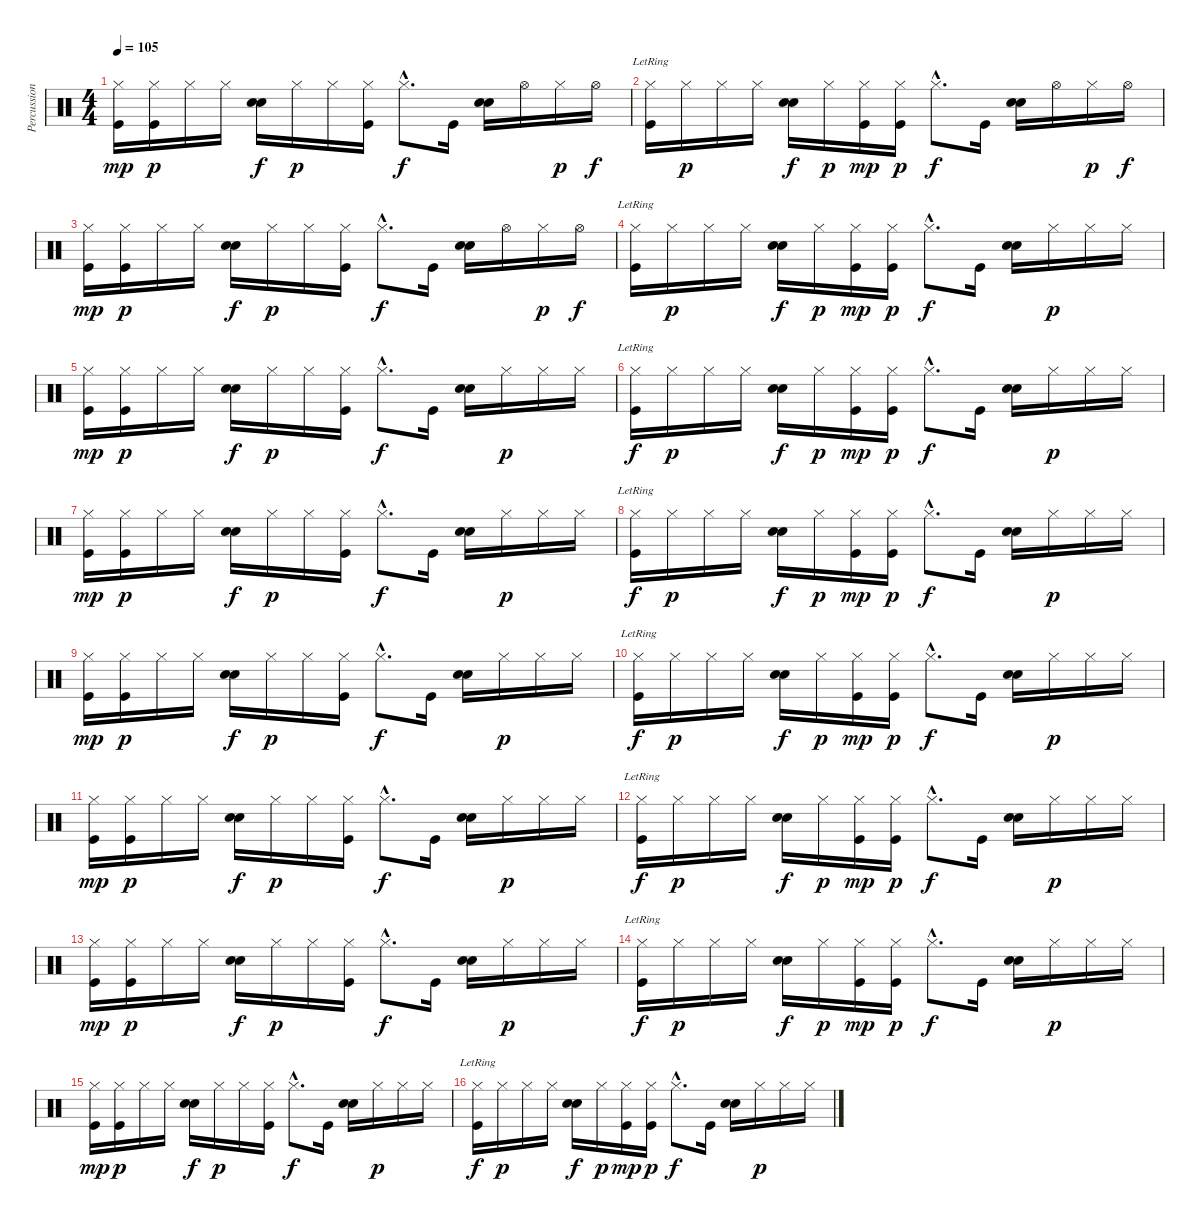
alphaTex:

\track ("Percussions" "Percussion") {instrument percussion}
\staff {score}
\articulation defaults
\ts (4 4)
\tempo 105
\clef neutral
\ks c
("Hi-Hat (closed)" "Kick (hit)").16{dy mp} ("Hi-Hat (closed)" "Kick (hit)").16{dy p} "Hi-Hat (closed)".16 "Hi-Hat (closed)".16 ("Hand Clap (hit)" "Snare (hit) 2").16{dy f} "Hi-Hat (closed)".16{dy p} "Hi-Hat (closed)".16 ("Hi-Hat (closed)" "Kick (hit)").16 "Hi-Hat (closed)"{hac}.8{d dy f} "Kick (hit)".16 ("Hand Clap (hit)" "Snare (hit) 2").16 "Hi-Hat (open)".16 "Hi-Hat (closed)".16{dy p} "Hi-Hat (open)".16{dy f} |
("Hi-Hat (closed)"{lr} "Kick (hit)").16 "Hi-Hat (closed)".16{dy p} "Hi-Hat (closed)".16 "Hi-Hat (closed)".16 ("Hand Clap (hit)" "Snare (hit) 2").16{dy f} "Hi-Hat (closed)".16{dy p} ("Hi-Hat (closed)" "Kick (hit)").16{dy mp} ("Hi-Hat (closed)" "Kick (hit)").16{dy p} "Hi-Hat (closed)"{hac}.8{d dy f} "Kick (hit)".16 ("Hand Clap (hit)" "Snare (hit) 2").16 "Hi-Hat (open)".16 "Hi-Hat (closed)".16{dy p} "Hi-Hat (open)".16{dy f} |
("Hi-Hat (closed)" "Kick (hit)").16{dy mp} ("Hi-Hat (closed)" "Kick (hit)").16{dy p} "Hi-Hat (closed)".16 "Hi-Hat (closed)".16 ("Hand Clap (hit)" "Snare (hit) 2").16{dy f} "Hi-Hat (closed)".16{dy p} "Hi-Hat (closed)".16 ("Hi-Hat (closed)" "Kick (hit)").16 "Hi-Hat (closed)"{hac}.8{d dy f} "Kick (hit)".16 ("Hand Clap (hit)" "Snare (hit) 2").16 "Hi-Hat (open)".16 "Hi-Hat (closed)".16{dy p} "Hi-Hat (open)".16{dy f} |
("Hi-Hat (closed)"{lr} "Kick (hit)").16 "Hi-Hat (closed)".16{dy p} "Hi-Hat (closed)".16 "Hi-Hat (closed)".16 ("Hand Clap (hit)" "Snare (hit) 2").16{dy f} "Hi-Hat (closed)".16{dy p} ("Hi-Hat (closed)" "Kick (hit)").16{dy mp} ("Hi-Hat (closed)" "Kick (hit)").16{dy p} "Hi-Hat (closed)"{hac}.8{d dy f} "Kick (hit)".16 ("Hand Clap (hit)" "Snare (hit) 2").16 "Hi-Hat (closed)".16{dy p} "Hi-Hat (closed)".16 "Hi-Hat (closed)".16 |
("Hi-Hat (closed)" "Kick (hit)").16{dy mp} ("Hi-Hat (closed)" "Kick (hit)").16{dy p} "Hi-Hat (closed)".16 "Hi-Hat (closed)".16 ("Hand Clap (hit)" "Snare (hit) 2").16{dy f} "Hi-Hat (closed)".16{dy p} "Hi-Hat (closed)".16 ("Hi-Hat (closed)" "Kick (hit)").16 "Hi-Hat (closed)"{hac}.8{d dy f} "Kick (hit)".16 ("Hand Clap (hit)" "Snare (hit) 2").16 "Hi-Hat (closed)".16{dy p} "Hi-Hat (closed)".16 "Hi-Hat (closed)".16 |
("Hi-Hat (closed)"{lr} "Kick (hit)").16{dy f} "Hi-Hat (closed)".16{dy p} "Hi-Hat (closed)".16 "Hi-Hat (closed)".16 ("Hand Clap (hit)" "Snare (hit) 2").16{dy f} "Hi-Hat (closed)".16{dy p} ("Hi-Hat (closed)" "Kick (hit)").16{dy mp} ("Hi-Hat (closed)" "Kick (hit)").16{dy p} "Hi-Hat (closed)"{hac}.8{d dy f} "Kick (hit)".16 ("Hand Clap (hit)" "Snare (hit) 2").16 "Hi-Hat (closed)".16{dy p} "Hi-Hat (closed)".16 "Hi-Hat (closed)".16 |
("Hi-Hat (closed)" "Kick (hit)").16{dy mp} ("Hi-Hat (closed)" "Kick (hit)").16{dy p} "Hi-Hat (closed)".16 "Hi-Hat (closed)".16 ("Hand Clap (hit)" "Snare (hit) 2").16{dy f} "Hi-Hat (closed)".16{dy p} "Hi-Hat (closed)".16 ("Hi-Hat (closed)" "Kick (hit)").16 "Hi-Hat (closed)"{hac}.8{d dy f} "Kick (hit)".16 ("Hand Clap (hit)" "Snare (hit) 2").16 "Hi-Hat (closed)".16{dy p} "Hi-Hat (closed)".16 "Hi-Hat (closed)".16 |
("Hi-Hat (closed)"{lr} "Kick (hit)").16{dy f} "Hi-Hat (closed)".16{dy p} "Hi-Hat (closed)".16 "Hi-Hat (closed)".16 ("Hand Clap (hit)" "Snare (hit) 2").16{dy f} "Hi-Hat (closed)".16{dy p} ("Hi-Hat (closed)" "Kick (hit)").16{dy mp} ("Hi-Hat (closed)" "Kick (hit)").16{dy p} "Hi-Hat (closed)"{hac}.8{d dy f} "Kick (hit)".16 ("Hand Clap (hit)" "Snare (hit) 2").16 "Hi-Hat (closed)".16{dy p} "Hi-Hat (closed)".16 "Hi-Hat (closed)".16 |
("Hi-Hat (closed)" "Kick (hit)").16{dy mp} ("Hi-Hat (closed)" "Kick (hit)").16{dy p} "Hi-Hat (closed)".16 "Hi-Hat (closed)".16 ("Hand Clap (hit)" "Snare (hit) 2").16{dy f} "Hi-Hat (closed)".16{dy p} "Hi-Hat (closed)".16 ("Hi-Hat (closed)" "Kick (hit)").16 "Hi-Hat (closed)"{hac}.8{d dy f} "Kick (hit)".16 ("Hand Clap (hit)" "Snare (hit) 2").16 "Hi-Hat (closed)".16{dy p} "Hi-Hat (closed)".16 "Hi-Hat (closed)".16 |
("Hi-Hat (closed)"{lr} "Kick (hit)").16{dy f} "Hi-Hat (closed)".16{dy p} "Hi-Hat (closed)".16 "Hi-Hat (closed)".16 ("Hand Clap (hit)" "Snare (hit) 2").16{dy f} "Hi-Hat (closed)".16{dy p} ("Hi-Hat (closed)" "Kick (hit)").16{dy mp} ("Hi-Hat (closed)" "Kick (hit)").16{dy p} "Hi-Hat (closed)"{hac}.8{d dy f} "Kick (hit)".16 ("Hand Clap (hit)" "Snare (hit) 2").16 "Hi-Hat (closed)".16{dy p} "Hi-Hat (closed)".16 "Hi-Hat (closed)".16 |
("Hi-Hat (closed)" "Kick (hit)").16{dy mp} ("Hi-Hat (closed)" "Kick (hit)").16{dy p} "Hi-Hat (closed)".16 "Hi-Hat (closed)".16 ("Hand Clap (hit)" "Snare (hit) 2").16{dy f} "Hi-Hat (closed)".16{dy p} "Hi-Hat (closed)".16 ("Hi-Hat (closed)" "Kick (hit)").16 "Hi-Hat (closed)"{hac}.8{d dy f} "Kick (hit)".16 ("Hand Clap (hit)" "Snare (hit) 2").16 "Hi-Hat (closed)".16{dy p} "Hi-Hat (closed)".16 "Hi-Hat (closed)".16 |
("Hi-Hat (closed)"{lr} "Kick (hit)").16{dy f} "Hi-Hat (closed)".16{dy p} "Hi-Hat (closed)".16 "Hi-Hat (closed)".16 ("Hand Clap (hit)" "Snare (hit) 2").16{dy f} "Hi-Hat (closed)".16{dy p} ("Hi-Hat (closed)" "Kick (hit)").16{dy mp} ("Hi-Hat (closed)" "Kick (hit)").16{dy p} "Hi-Hat (closed)"{hac}.8{d dy f} "Kick (hit)".16 ("Hand Clap (hit)" "Snare (hit) 2").16 "Hi-Hat (closed)".16{dy p} "Hi-Hat (closed)".16 "Hi-Hat (closed)".16 |
("Hi-Hat (closed)" "Kick (hit)").16{dy mp} ("Hi-Hat (closed)" "Kick (hit)").16{dy p} "Hi-Hat (closed)".16 "Hi-Hat (closed)".16 ("Hand Clap (hit)" "Snare (hit) 2").16{dy f} "Hi-Hat (closed)".16{dy p} "Hi-Hat (closed)".16 ("Hi-Hat (closed)" "Kick (hit)").16 "Hi-Hat (closed)"{hac}.8{d dy f} "Kick (hit)".16 ("Hand Clap (hit)" "Snare (hit) 2").16 "Hi-Hat (closed)".16{dy p} "Hi-Hat (closed)".16 "Hi-Hat (closed)".16 |
("Hi-Hat (closed)"{lr} "Kick (hit)").16{dy f} "Hi-Hat (closed)".16{dy p} "Hi-Hat (closed)".16 "Hi-Hat (closed)".16 ("Hand Clap (hit)" "Snare (hit) 2").16{dy f} "Hi-Hat (closed)".16{dy p} ("Hi-Hat (closed)" "Kick (hit)").16{dy mp} ("Hi-Hat (closed)" "Kick (hit)").16{dy p} "Hi-Hat (closed)"{hac}.8{d dy f} "Kick (hit)".16 ("Hand Clap (hit)" "Snare (hit) 2").16 "Hi-Hat (closed)".16{dy p} "Hi-Hat (closed)".16 "Hi-Hat (closed)".16 |
("Hi-Hat (closed)" "Kick (hit)").16{dy mp} ("Hi-Hat (closed)" "Kick (hit)").16{dy p} "Hi-Hat (closed)".16 "Hi-Hat (closed)".16 ("Hand Clap (hit)" "Snare (hit) 2").16{dy f} "Hi-Hat (closed)".16{dy p} "Hi-Hat (closed)".16 ("Hi-Hat (closed)" "Kick (hit)").16 "Hi-Hat (closed)"{hac}.8{d dy f} "Kick (hit)".16 ("Hand Clap (hit)" "Snare (hit) 2").16 "Hi-Hat (closed)".16{dy p} "Hi-Hat (closed)".16 "Hi-Hat (closed)".16 |
("Hi-Hat (closed)"{lr} "Kick (hit)").16{dy f} "Hi-Hat (closed)".16{dy p} "Hi-Hat (closed)".16 "Hi-Hat (closed)".16 ("Hand Clap (hit)" "Snare (hit) 2").16{dy f} "Hi-Hat (closed)".16{dy p} ("Hi-Hat (closed)" "Kick (hit)").16{dy mp} ("Hi-Hat (closed)" "Kick (hit)").16{dy p} "Hi-Hat (closed)"{hac}.8{d dy f} "Kick (hit)".16 ("Hand Clap (hit)" "Snare (hit) 2").16 "Hi-Hat (closed)".16{dy p} "Hi-Hat (closed)".16 "Hi-Hat (closed)".16
